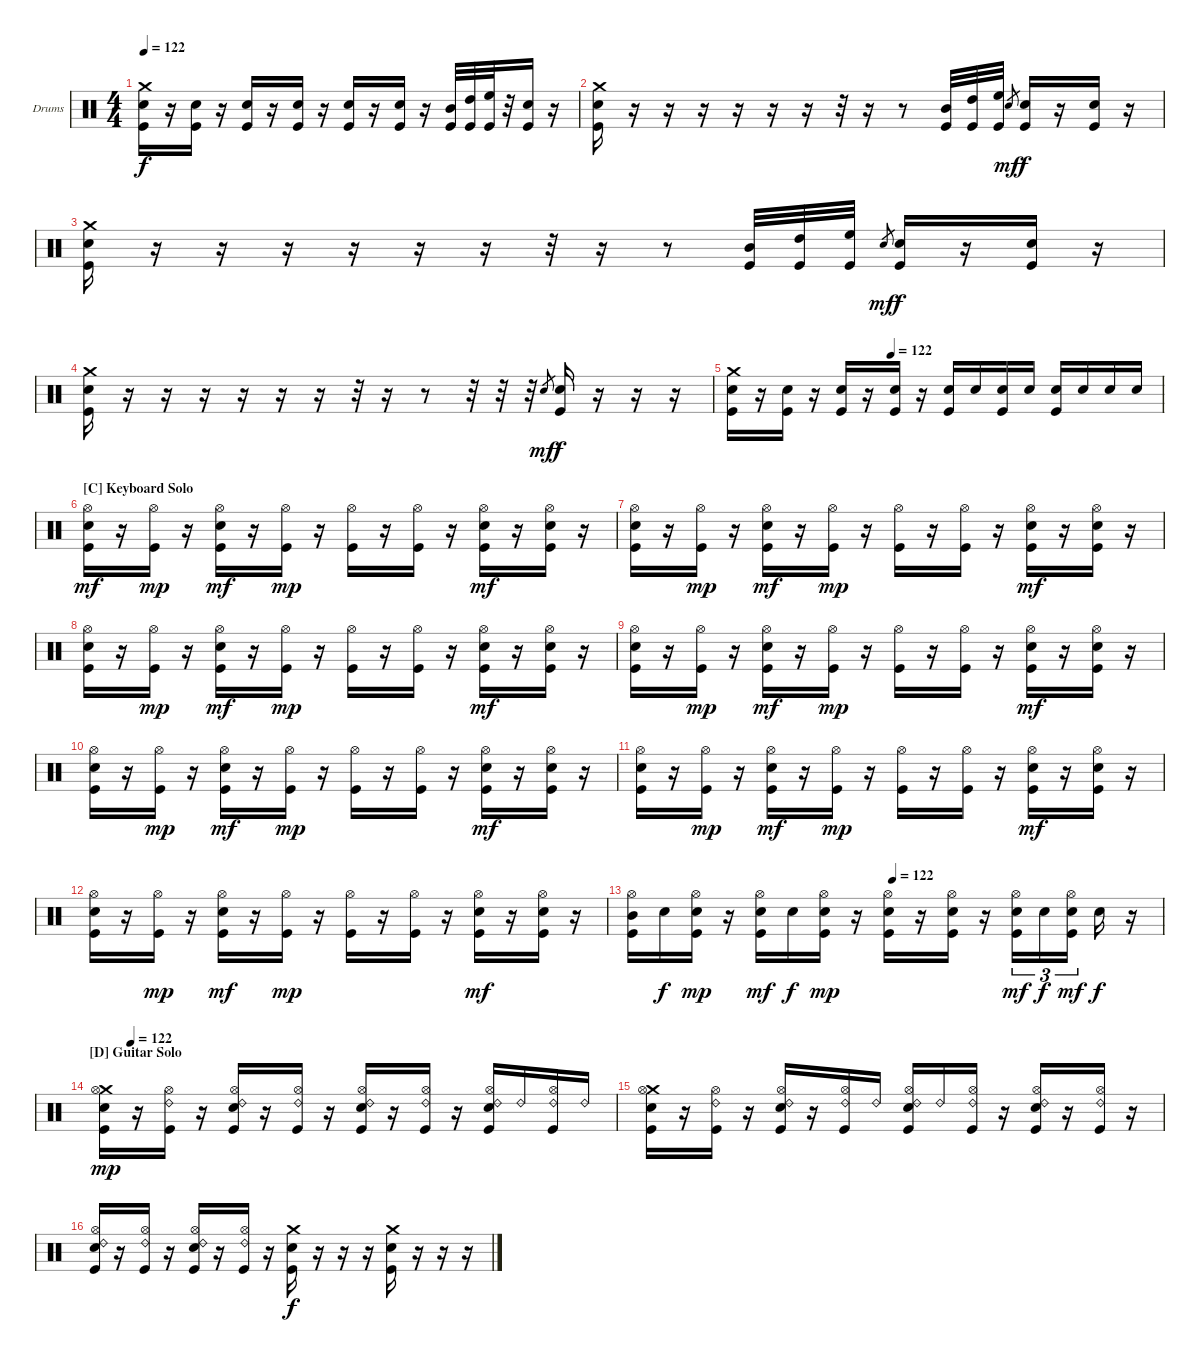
\bracketExtendMode groupsimilarinstruments
\firstSystemTrackNameOrientation horizontal
\otherSystemsTrackNameOrientation horizontal
\track ("Drumkit" "Drums") {instrument percussion}
\staff {score}
\articulation defaults
\ts (4 4)
\tempo 122
\clef neutral
\ks c
("Crash medium (hit)" "Snare (hit) 2" "Kick (hit)").16{dy f} r.16 ("Snare (hit) 2" "Kick (hit)").16 r.16 ("Snare (hit) 2" "Kick (hit)").16 r.16 ("Snare (hit) 2" "Kick (hit)").16 r.16 ("Snare (hit) 2" "Kick (hit)").16 r.16 ("Snare (hit) 2" "Kick (hit)").16 r.16 ("Mid Tom (hit)" "Kick (hit)").32 ("High Tom (hit)" "Kick (hit)").32 ("High Floor Tom (hit)" "Kick (hit)").32 r.32 ("Snare (hit) 2" "Kick (hit)").16 r.16 |
("Crash medium (hit)" "Snare (hit) 2" "Kick (hit)").16 r.16 r.16 r.16 r.16 r.16 r.16 r.32 r.16 r.8 ("Mid Tom (hit)" "Kick (hit)").32 ("High Tom (hit)" "Kick (hit)").32 ("High Floor Tom (hit)" "Kick (hit)").32 "Snare (hit) 2".8{gr dy mf} ("Snare (hit) 2" "Kick (hit)").16{dy f} r.16 ("Snare (hit) 2" "Kick (hit)").16 r.16 |
("Crash medium (hit)" "Snare (hit) 2" "Kick (hit)").16 r.16 r.16 r.16 r.16 r.16 r.16 r.32 r.16 r.8 ("Mid Tom (hit)" "Kick (hit)").32 ("High Tom (hit)" "Kick (hit)").32 ("High Floor Tom (hit)" "Kick (hit)").32 "Snare (hit) 2".8{gr dy mf} ("Snare (hit) 2" "Kick (hit)").16{dy f} r.16 ("Snare (hit) 2" "Kick (hit)").16 r.16 |
("Crash medium (hit)" "Snare (hit) 2" "Kick (hit)").16 r.16 r.16 r.16 r.16 r.16 r.16 r.32 r.16 r.8 r.32 r.32 r.32 "Snare (hit) 2".8{gr dy mf} ("Snare (hit) 2" "Kick (hit)").16{dy f} r.16 r.16 r.16 |
\tempo (122 0.369231)
("Crash medium (hit)" "Snare (hit) 2" "Kick (hit)").16 r.16 ("Snare (hit) 2" "Kick (hit)").16 r.16 ("Snare (hit) 2" "Kick (hit)").16 r.16 ("Snare (hit) 2" "Kick (hit)").16 r.16 ("Snare (hit) 2" "Kick (hit)").16 "Snare (hit) 2".16 ("Snare (hit) 2" "Kick (hit)").16 "Snare (hit) 2".16 ("Snare (hit) 2" "Kick (hit)").16 "Snare (hit) 2".16 "Snare (hit) 2".16 "Snare (hit) 2".16 |
\section ("C" "Keyboard Solo")
("Hi-Hat (open)" "Snare (hit) 2" "Kick (hit)").16{dy mf} r.16 ("Hi-Hat (open)" "Kick (hit)").16{dy mp} r.16 ("Hi-Hat (open)" "Snare (hit) 2" "Kick (hit)").16{dy mf} r.16 ("Hi-Hat (open)" "Kick (hit)").16{dy mp} r.16 ("Hi-Hat (open)" "Kick (hit)").16 r.16 ("Hi-Hat (open)" "Kick (hit)").16 r.16 ("Hi-Hat (open)" "Snare (hit) 2" "Kick (hit)").16{dy mf} r.16 ("Hi-Hat (open)" "Snare (hit) 2" "Kick (hit)").16 r.16 |
("Hi-Hat (open)" "Snare (hit) 2" "Kick (hit)").16 r.16 ("Hi-Hat (open)" "Kick (hit)").16{dy mp} r.16 ("Hi-Hat (open)" "Snare (hit) 2" "Kick (hit)").16{dy mf} r.16 ("Hi-Hat (open)" "Kick (hit)").16{dy mp} r.16 ("Hi-Hat (open)" "Kick (hit)").16 r.16 ("Hi-Hat (open)" "Kick (hit)").16 r.16 ("Hi-Hat (open)" "Snare (hit) 2" "Kick (hit)").16{dy mf} r.16 ("Hi-Hat (open)" "Snare (hit) 2" "Kick (hit)").16 r.16 |
("Hi-Hat (open)" "Snare (hit) 2" "Kick (hit)").16 r.16 ("Hi-Hat (open)" "Kick (hit)").16{dy mp} r.16 ("Hi-Hat (open)" "Snare (hit) 2" "Kick (hit)").16{dy mf} r.16 ("Hi-Hat (open)" "Kick (hit)").16{dy mp} r.16 ("Hi-Hat (open)" "Kick (hit)").16 r.16 ("Hi-Hat (open)" "Kick (hit)").16 r.16 ("Hi-Hat (open)" "Snare (hit) 2" "Kick (hit)").16{dy mf} r.16 ("Hi-Hat (open)" "Snare (hit) 2" "Kick (hit)").16 r.16 |
("Hi-Hat (open)" "Snare (hit) 2" "Kick (hit)").16 r.16 ("Hi-Hat (open)" "Kick (hit)").16{dy mp} r.16 ("Hi-Hat (open)" "Snare (hit) 2" "Kick (hit)").16{dy mf} r.16 ("Hi-Hat (open)" "Kick (hit)").16{dy mp} r.16 ("Hi-Hat (open)" "Kick (hit)").16 r.16 ("Hi-Hat (open)" "Kick (hit)").16 r.16 ("Hi-Hat (open)" "Snare (hit) 2" "Kick (hit)").16{dy mf} r.16 ("Hi-Hat (open)" "Snare (hit) 2" "Kick (hit)").16 r.16 |
("Hi-Hat (open)" "Snare (hit) 2" "Kick (hit)").16 r.16 ("Hi-Hat (open)" "Kick (hit)").16{dy mp} r.16 ("Hi-Hat (open)" "Snare (hit) 2" "Kick (hit)").16{dy mf} r.16 ("Hi-Hat (open)" "Kick (hit)").16{dy mp} r.16 ("Hi-Hat (open)" "Kick (hit)").16 r.16 ("Hi-Hat (open)" "Kick (hit)").16 r.16 ("Hi-Hat (open)" "Snare (hit) 2" "Kick (hit)").16{dy mf} r.16 ("Hi-Hat (open)" "Snare (hit) 2" "Kick (hit)").16 r.16 |
("Hi-Hat (open)" "Snare (hit) 2" "Kick (hit)").16 r.16 ("Hi-Hat (open)" "Kick (hit)").16{dy mp} r.16 ("Hi-Hat (open)" "Snare (hit) 2" "Kick (hit)").16{dy mf} r.16 ("Hi-Hat (open)" "Kick (hit)").16{dy mp} r.16 ("Hi-Hat (open)" "Kick (hit)").16 r.16 ("Hi-Hat (open)" "Kick (hit)").16 r.16 ("Hi-Hat (open)" "Snare (hit) 2" "Kick (hit)").16{dy mf} r.16 ("Hi-Hat (open)" "Snare (hit) 2" "Kick (hit)").16 r.16 |
("Hi-Hat (open)" "Snare (hit) 2" "Kick (hit)").16 r.16 ("Hi-Hat (open)" "Kick (hit)").16{dy mp} r.16 ("Hi-Hat (open)" "Snare (hit) 2" "Kick (hit)").16{dy mf} r.16 ("Hi-Hat (open)" "Kick (hit)").16{dy mp} r.16 ("Hi-Hat (open)" "Kick (hit)").16 r.16 ("Hi-Hat (open)" "Kick (hit)").16 r.16 ("Hi-Hat (open)" "Snare (hit) 2" "Kick (hit)").16{dy mf} r.16 ("Hi-Hat (open)" "Snare (hit) 2" "Kick (hit)").16 r.16 |
\tempo (122 0.492308)
("Hi-Hat (open)" "Mid Tom (hit)" "Kick (hit)").16 "Snare (hit) 2".16{dy f} ("Hi-Hat (open)" "Snare (hit) 2" "Kick (hit)").16{dy mp} r.16 ("Hi-Hat (open)" "Snare (hit) 2" "Kick (hit)").16{dy mf} "Snare (hit) 2".16{dy f} ("Hi-Hat (open)" "Snare (hit) 2" "Kick (hit)").16{dy mp} r.16 ("Hi-Hat (open)" "Snare (hit) 2" "Kick (hit)").16 r.16 ("Hi-Hat (open)" "Snare (hit) 2" "Kick (hit)").16 r.16 ("Hi-Hat (open)" "Snare (hit) 2" "Kick (hit)").16{tu (3 2) dy mf} "Snare (hit) 2".16{tu (3 2) dy f} ("Hi-Hat (open)" "Snare (hit) 2" "Kick (hit)").16{tu (3 2) dy mf} "Snare (hit) 2".16{dy f} r.16 |
\section ("D" "Guitar Solo")
\tempo (122 0.0615385)
("Crash medium (hit)" "Hi-Hat (open)" "Snare (hit) 2" "Kick (hit)").16{dy mp} r.16 ("Ride (bell) 2" "Hi-Hat (open)" "Kick (hit)").16 r.16 ("Ride (bell) 2" "Hi-Hat (open)" "Snare (hit) 2" "Kick (hit)").16 r.16 ("Ride (bell) 2" "Hi-Hat (open)" "Kick (hit)").16 r.16 ("Ride (bell) 2" "Hi-Hat (open)" "Snare (hit) 2" "Kick (hit)").16 r.16 ("Ride (bell) 2" "Hi-Hat (open)" "Kick (hit)").16 r.16 ("Ride (bell) 2" "Hi-Hat (open)" "Snare (hit) 2" "Kick (hit)").16 "Ride (bell) 2".16 ("Ride (bell) 2" "Hi-Hat (open)" "Kick (hit)").16 "Ride (bell) 2".16 |
("Crash medium (hit)" "Hi-Hat (open)" "Snare (hit) 2" "Kick (hit)").16 r.16 ("Ride (bell) 2" "Hi-Hat (open)" "Kick (hit)").16 r.16 ("Ride (bell) 2" "Hi-Hat (open)" "Snare (hit) 2" "Kick (hit)").16 r.16 ("Ride (bell) 2" "Hi-Hat (open)" "Kick (hit)").16 "Ride (bell) 2".16 ("Ride (bell) 2" "Hi-Hat (open)" "Snare (hit) 2" "Kick (hit)").16 "Ride (bell) 2".16 ("Ride (bell) 2" "Hi-Hat (open)" "Kick (hit)").16 r.16 ("Ride (bell) 2" "Hi-Hat (open)" "Snare (hit) 2" "Kick (hit)").16 r.16 ("Ride (bell) 2" "Hi-Hat (open)" "Kick (hit)").16 r.16 |
("Ride (bell) 2" "Hi-Hat (open)" "Snare (hit) 2" "Kick (hit)").16 r.16 ("Ride (bell) 2" "Hi-Hat (open)" "Kick (hit)").16 r.16 ("Ride (bell) 2" "Hi-Hat (open)" "Snare (hit) 2" "Kick (hit)").16 r.16 ("Ride (bell) 2" "Hi-Hat (open)" "Kick (hit)").16 r.16 ("Crash medium (hit)" "Snare (hit) 2" "Kick (hit)").16{dy f} r.16 r.16 r.16 ("Crash medium (hit)" "Snare (hit) 2" "Kick (hit)").16 r.16 r.16 r.16
